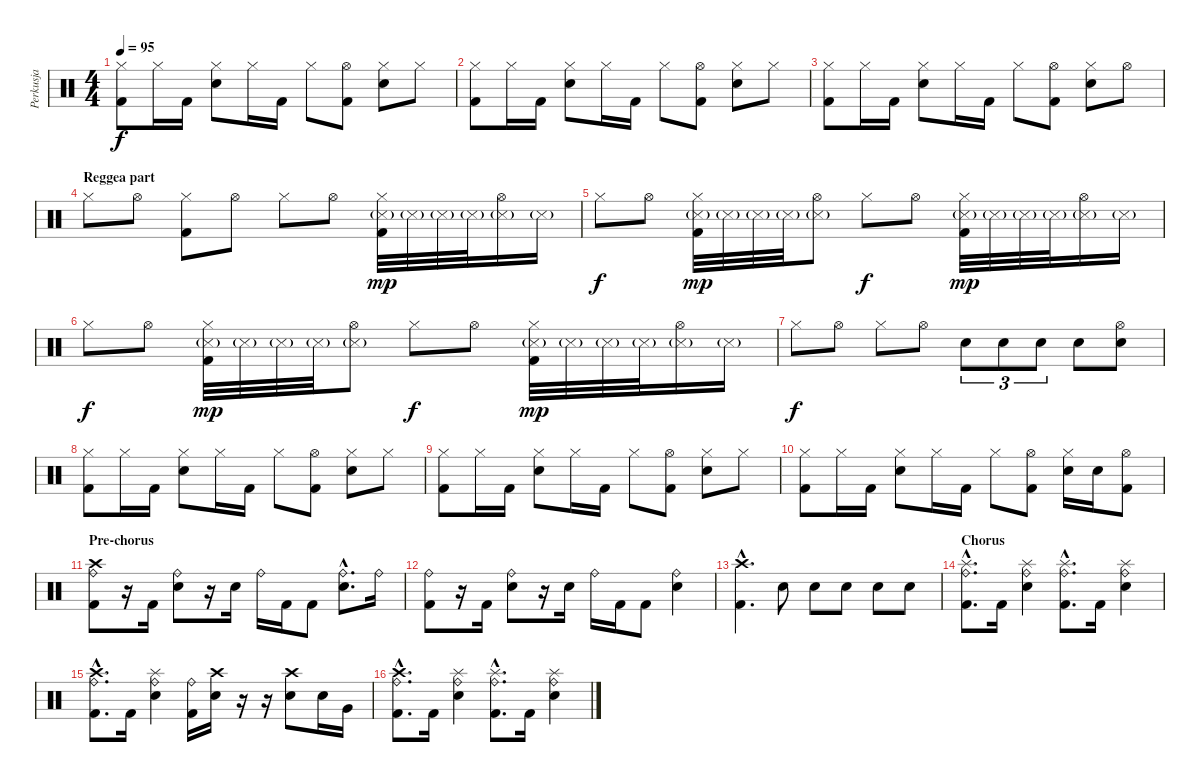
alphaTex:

\track ("Perkusja" "Perkusja") {instrument percussion}
\staff {score}
\articulation defaults
\ts (4 4)
\tempo 95
\clef neutral
\ks c
("Kick (hit) 2" "Hi-Hat (closed)").8{dy f} "Hi-Hat (closed)".16 "Kick (hit) 2".16 ("Electric Snare (hit)" "Hi-Hat (closed)").8 "Hi-Hat (closed)".16 "Kick (hit) 2".16 "Hi-Hat (closed)".8 ("Kick (hit) 2" "Hi-Hat (open)").8 ("Electric Snare (hit)" "Hi-Hat (closed)").8 "Hi-Hat (closed)".8 |
("Kick (hit) 2" "Hi-Hat (closed)").8 "Hi-Hat (closed)".16 "Kick (hit) 2".16 ("Electric Snare (hit)" "Hi-Hat (closed)").8 "Hi-Hat (closed)".16 "Kick (hit) 2".16 "Hi-Hat (closed)".8 ("Kick (hit) 2" "Hi-Hat (open)").8 ("Electric Snare (hit)" "Hi-Hat (closed)").8 "Hi-Hat (closed)".8 |
("Kick (hit) 2" "Hi-Hat (closed)").8 "Hi-Hat (closed)".16 "Kick (hit) 2".16 ("Electric Snare (hit)" "Hi-Hat (closed)").8 "Hi-Hat (closed)".16 "Kick (hit) 2".16 "Hi-Hat (closed)".8 ("Kick (hit) 2" "Hi-Hat (open)").8 ("Electric Snare (hit)" "Hi-Hat (closed)").8 "Hi-Hat (open)".8 |
\section ("" "Reggea part")
"Hi-Hat (closed)".8 "Hi-Hat (open)".8 ("Hi-Hat (closed)" "Kick (hit) 2").8 "Hi-Hat (open)".8 "Hi-Hat (closed)".8 "Hi-Hat (open)".8 ("Hi-Hat (closed)" "Kick (hit) 2" "Snare (side stick) 3"{g}).32{dy mp} "Snare (side stick) 3"{g}.32 "Snare (side stick) 3"{g}.32 "Snare (side stick) 3"{g}.32 ("Hi-Hat (open)" "Snare (side stick) 3"{g}).16 "Snare (side stick) 3"{g}.16 |
"Hi-Hat (closed)".8{dy f} "Hi-Hat (open)".8 ("Hi-Hat (closed)" "Kick (hit) 2" "Snare (side stick) 3"{g}).32{dy mp} "Snare (side stick) 3"{g}.32 "Snare (side stick) 3"{g}.32 "Snare (side stick) 3"{g}.32 ("Hi-Hat (open)" "Snare (side stick) 3"{g}).8 "Hi-Hat (closed)".8{dy f} "Hi-Hat (open)".8 ("Hi-Hat (closed)" "Kick (hit) 2" "Snare (side stick) 3"{g}).32{dy mp} "Snare (side stick) 3"{g}.32 "Snare (side stick) 3"{g}.32 "Snare (side stick) 3"{g}.32 ("Hi-Hat (open)" "Snare (side stick) 3"{g}).16 "Snare (side stick) 3"{g}.16 |
"Hi-Hat (closed)".8{dy f} "Hi-Hat (open)".8 ("Hi-Hat (closed)" "Kick (hit) 2" "Snare (side stick) 3"{g}).32{dy mp} "Snare (side stick) 3"{g}.32 "Snare (side stick) 3"{g}.32 "Snare (side stick) 3"{g}.32 ("Hi-Hat (open)" "Snare (side stick) 3"{g}).8 "Hi-Hat (closed)".8{dy f} "Hi-Hat (open)".8 ("Hi-Hat (closed)" "Kick (hit) 2" "Snare (side stick) 3"{g}).32{dy mp} "Snare (side stick) 3"{g}.32 "Snare (side stick) 3"{g}.32 "Snare (side stick) 3"{g}.32 ("Hi-Hat (open)" "Snare (side stick) 3"{g}).16 "Snare (side stick) 3"{g}.16 |
"Hi-Hat (closed)".8{dy f} "Hi-Hat (open)".8 "Hi-Hat (closed)".8 "Hi-Hat (open)".8 "Electric Snare (hit)".8{tu (3 2)} "Electric Snare (hit)".8{tu (3 2)} "Electric Snare (hit)".8{tu (3 2)} "Electric Snare (hit)".8 ("Electric Snare (hit)" "Hi-Hat (open)").8 |
("Kick (hit) 2" "Hi-Hat (closed)").8 "Hi-Hat (closed)".16 "Kick (hit) 2".16 ("Electric Snare (hit)" "Hi-Hat (closed)").8 "Hi-Hat (closed)".16 "Kick (hit) 2".16 "Hi-Hat (closed)".8 ("Kick (hit) 2" "Hi-Hat (open)").8 ("Electric Snare (hit)" "Hi-Hat (closed)").8 "Hi-Hat (closed)".8 |
("Kick (hit) 2" "Hi-Hat (closed)").8 "Hi-Hat (closed)".16 "Kick (hit) 2".16 ("Electric Snare (hit)" "Hi-Hat (closed)").8 "Hi-Hat (closed)".16 "Kick (hit) 2".16 "Hi-Hat (closed)".8 ("Kick (hit) 2" "Hi-Hat (open)").8 ("Electric Snare (hit)" "Hi-Hat (closed)").8 "Hi-Hat (closed)".8 |
("Kick (hit) 2" "Hi-Hat (closed)").8 "Hi-Hat (closed)".16 "Kick (hit) 2".16 ("Electric Snare (hit)" "Hi-Hat (closed)").8 "Hi-Hat (closed)".16 "Kick (hit) 2".16 "Hi-Hat (closed)".8 ("Kick (hit) 2" "Hi-Hat (open)").8 ("Electric Snare (hit)" "Hi-Hat (closed)").16 "Electric Snare (hit)".16 ("Kick (hit) 2" "Hi-Hat (open)").8 |
\section ("" "Pre-chorus")
("Ride (bell)" "Kick (hit) 2" "Crash high (hit)").8 r.16 "Kick (hit) 2".16 ("Ride (bell)" "Electric Snare (hit)").8 r.16 "Electric Snare (hit)".16 "Ride (bell)".16 "Kick (hit) 2".16 "Kick (hit) 2".8 ("Ride (bell)"{hac} "Electric Snare (hit)"{hac}).8{d} "Ride (bell)".16 |
("Ride (bell)" "Kick (hit) 2").8 r.16 "Kick (hit) 2".16 ("Ride (bell)" "Electric Snare (hit)").8 r.16 "Electric Snare (hit)".16 "Ride (bell)".16 "Kick (hit) 2".16 "Kick (hit) 2".8 ("Ride (bell)" "Electric Snare (hit)").4 |
("Kick (hit) 2"{hac} "Crash high (hit)"{hac}).4{d} "Electric Snare (hit)".8 "Electric Snare (hit)".8 "Electric Snare (hit)".8 "Electric Snare (hit)".8 "Electric Snare (hit)".8 |
\section ("" "Chorus")
("Kick (hit) 2"{hac} "Splash (hit)"{hac} "Ride (bell)"{hac}).8{d} "Kick (hit) 2".16 ("Electric Snare (hit)" "Splash (hit)" "Ride (bell)").4 ("Kick (hit) 2"{hac} "Splash (hit)"{hac} "Ride (bell)"{hac}).8{d} "Kick (hit) 2".16 ("Electric Snare (hit)" "Splash (hit)" "Ride (bell)").4 |
("Kick (hit) 2"{hac} "Crash high (hit)"{hac} "Ride (bell)"{hac}).8{d} "Kick (hit) 2".16 ("Electric Snare (hit)" "Splash (hit)" "Ride (bell)").4 ("Kick (hit) 2" "Ride (bell)").16 ("Electric Snare (hit)" "Crash high (hit)").16 r.16 r.16 ("Electric Snare (hit)" "Crash high (hit)").8 "Electric Snare (hit)".16 "Very Low Tom (hit)".16 |
("Kick (hit) 2"{hac} "Crash high (hit)"{hac} "Ride (bell)"{hac}).8{d} "Kick (hit) 2".16 ("Electric Snare (hit)" "Splash (hit)" "Ride (bell)").4 ("Kick (hit) 2"{hac} "Splash (hit)"{hac} "Ride (bell)"{hac}).8{d} "Kick (hit) 2".16 ("Electric Snare (hit)" "Splash (hit)" "Ride (bell)").4
